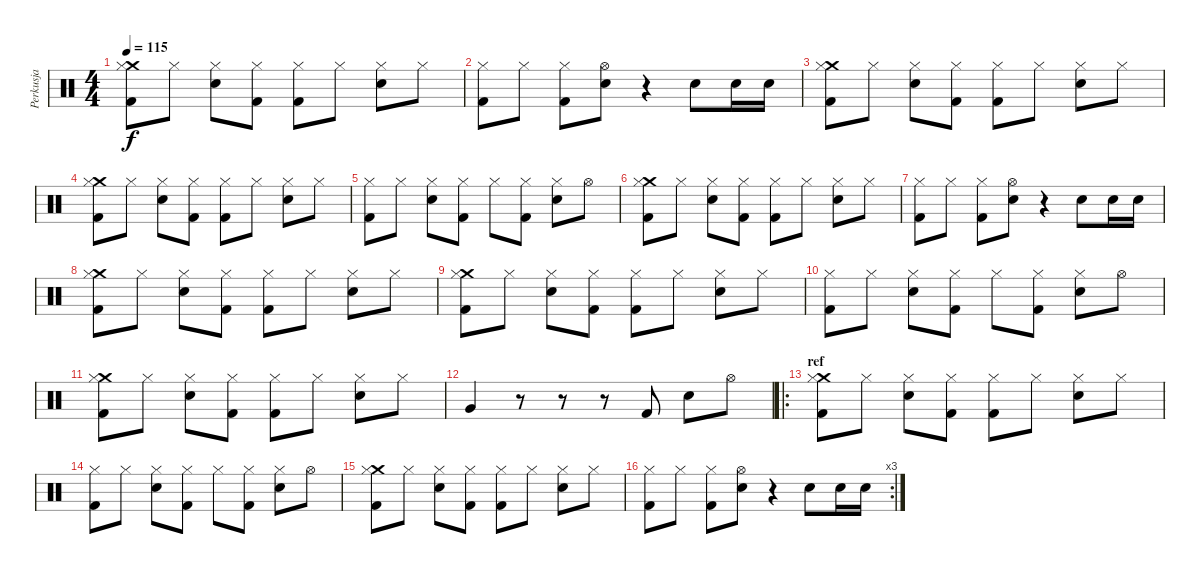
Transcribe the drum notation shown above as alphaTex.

\track ("Perkusja" "Perkusja") {instrument percussion}
\staff {score}
\articulation defaults
\ts (4 4)
\tempo 115
\clef neutral
\ks c
("Crash medium (hit)" "Hi-Hat (closed)" "Kick (hit) 2").8{dy f} "Hi-Hat (closed)".8 ("Hi-Hat (closed)" "Electric Snare (hit)").8 ("Hi-Hat (closed)" "Kick (hit) 2").8 ("Hi-Hat (closed)" "Kick (hit) 2").8 "Hi-Hat (closed)".8 ("Hi-Hat (closed)" "Electric Snare (hit)").8 "Hi-Hat (closed)".8 |
("Hi-Hat (closed)" "Kick (hit) 2").8 "Hi-Hat (closed)".8 ("Hi-Hat (closed)" "Kick (hit) 2").8 ("Hi-Hat (open)" "Electric Snare (hit)").8 r.4 "Electric Snare (hit)".8 "Electric Snare (hit)".16 "Electric Snare (hit)".16 |
("Crash medium (hit)" "Hi-Hat (closed)" "Kick (hit) 2").8 "Hi-Hat (closed)".8 ("Hi-Hat (closed)" "Electric Snare (hit)").8 ("Hi-Hat (closed)" "Kick (hit) 2").8 ("Hi-Hat (closed)" "Kick (hit) 2").8 "Hi-Hat (closed)".8 ("Hi-Hat (closed)" "Electric Snare (hit)").8 "Hi-Hat (closed)".8 |
("Crash medium (hit)" "Hi-Hat (closed)" "Kick (hit) 2").8 "Hi-Hat (closed)".8 ("Hi-Hat (closed)" "Electric Snare (hit)").8 ("Hi-Hat (closed)" "Kick (hit) 2").8 ("Hi-Hat (closed)" "Kick (hit) 2").8 "Hi-Hat (closed)".8 ("Hi-Hat (closed)" "Electric Snare (hit)").8 "Hi-Hat (closed)".8 |
("Hi-Hat (closed)" "Kick (hit) 2").8 "Hi-Hat (closed)".8 ("Hi-Hat (closed)" "Electric Snare (hit)").8 ("Hi-Hat (closed)" "Kick (hit) 2").8 "Hi-Hat (closed)".8 ("Hi-Hat (closed)" "Kick (hit) 2").8 ("Hi-Hat (closed)" "Electric Snare (hit)").8 "Hi-Hat (open)".8 |
("Crash medium (hit)" "Hi-Hat (closed)" "Kick (hit) 2").8 "Hi-Hat (closed)".8 ("Hi-Hat (closed)" "Electric Snare (hit)").8 ("Hi-Hat (closed)" "Kick (hit) 2").8 ("Hi-Hat (closed)" "Kick (hit) 2").8 "Hi-Hat (closed)".8 ("Hi-Hat (closed)" "Electric Snare (hit)").8 "Hi-Hat (closed)".8 |
("Hi-Hat (closed)" "Kick (hit) 2").8 "Hi-Hat (closed)".8 ("Hi-Hat (closed)" "Kick (hit) 2").8 ("Hi-Hat (open)" "Electric Snare (hit)").8 r.4 "Electric Snare (hit)".8 "Electric Snare (hit)".16 "Electric Snare (hit)".16 |
("Crash medium (hit)" "Hi-Hat (closed)" "Kick (hit) 2").8 "Hi-Hat (closed)".8 ("Hi-Hat (closed)" "Electric Snare (hit)").8 ("Hi-Hat (closed)" "Kick (hit) 2").8 ("Hi-Hat (closed)" "Kick (hit) 2").8 "Hi-Hat (closed)".8 ("Hi-Hat (closed)" "Electric Snare (hit)").8 "Hi-Hat (closed)".8 |
("Crash medium (hit)" "Hi-Hat (closed)" "Kick (hit) 2").8 "Hi-Hat (closed)".8 ("Hi-Hat (closed)" "Electric Snare (hit)").8 ("Hi-Hat (closed)" "Kick (hit) 2").8 ("Hi-Hat (closed)" "Kick (hit) 2").8 "Hi-Hat (closed)".8 ("Hi-Hat (closed)" "Electric Snare (hit)").8 "Hi-Hat (closed)".8 |
("Hi-Hat (closed)" "Kick (hit) 2").8 "Hi-Hat (closed)".8 ("Hi-Hat (closed)" "Electric Snare (hit)").8 ("Hi-Hat (closed)" "Kick (hit) 2").8 "Hi-Hat (closed)".8 ("Hi-Hat (closed)" "Kick (hit) 2").8 ("Hi-Hat (closed)" "Electric Snare (hit)").8 "Hi-Hat (open)".8 |
("Crash medium (hit)" "Hi-Hat (closed)" "Kick (hit) 2").8 "Hi-Hat (closed)".8 ("Hi-Hat (closed)" "Electric Snare (hit)").8 ("Hi-Hat (closed)" "Kick (hit) 2").8 ("Hi-Hat (closed)" "Kick (hit) 2").8 "Hi-Hat (closed)".8 ("Hi-Hat (closed)" "Electric Snare (hit)").8 "Hi-Hat (closed)".8 |
"Very Low Tom (hit)".4 r.8 r.8 r.8 "Kick (hit) 2".8 "Electric Snare (hit)".8 "Hi-Hat (open)".8 |
\ro
\section ("" "ref")
("Crash medium (hit)" "Hi-Hat (closed)" "Kick (hit) 2").8 "Hi-Hat (closed)".8 ("Hi-Hat (closed)" "Electric Snare (hit)").8 ("Hi-Hat (closed)" "Kick (hit) 2").8 ("Hi-Hat (closed)" "Kick (hit) 2").8 "Hi-Hat (closed)".8 ("Hi-Hat (closed)" "Electric Snare (hit)").8 "Hi-Hat (closed)".8 |
("Hi-Hat (closed)" "Kick (hit) 2").8 "Hi-Hat (closed)".8 ("Hi-Hat (closed)" "Electric Snare (hit)").8 ("Hi-Hat (closed)" "Kick (hit) 2").8 "Hi-Hat (closed)".8 ("Hi-Hat (closed)" "Kick (hit) 2").8 ("Hi-Hat (closed)" "Electric Snare (hit)").8 "Hi-Hat (open)".8 |
("Crash medium (hit)" "Hi-Hat (closed)" "Kick (hit) 2").8 "Hi-Hat (closed)".8 ("Hi-Hat (closed)" "Electric Snare (hit)").8 ("Hi-Hat (closed)" "Kick (hit) 2").8 ("Hi-Hat (closed)" "Kick (hit) 2").8 "Hi-Hat (closed)".8 ("Hi-Hat (closed)" "Electric Snare (hit)").8 "Hi-Hat (closed)".8 |
\rc 3
("Hi-Hat (closed)" "Kick (hit) 2").8 "Hi-Hat (closed)".8 ("Hi-Hat (closed)" "Kick (hit) 2").8 ("Hi-Hat (open)" "Electric Snare (hit)").8 r.4 "Electric Snare (hit)".8 "Electric Snare (hit)".16 "Electric Snare (hit)".16
